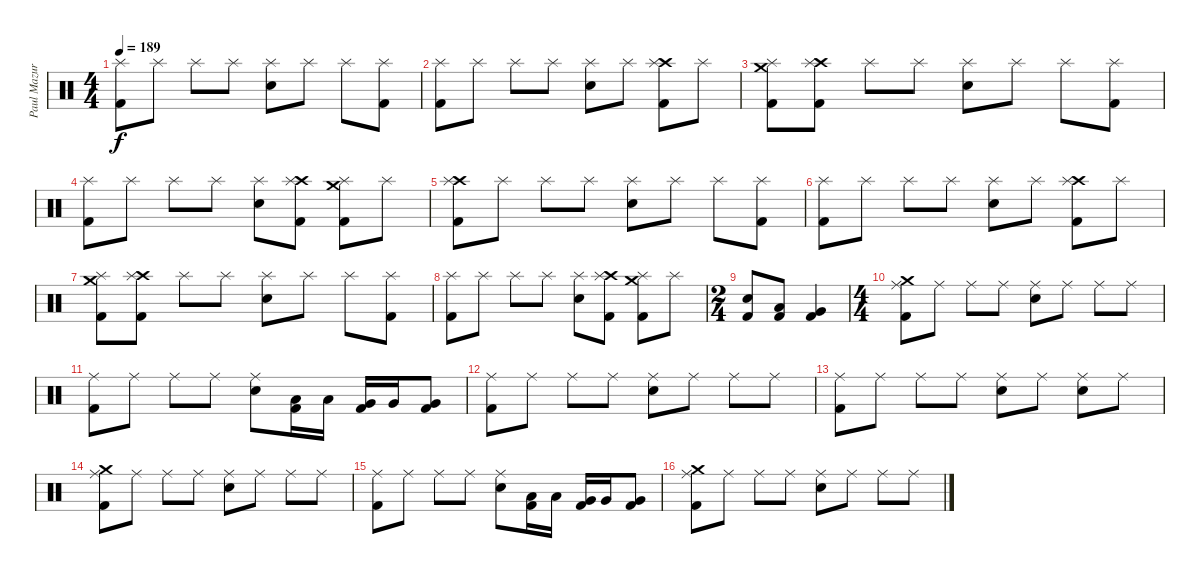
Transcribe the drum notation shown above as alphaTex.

\track ("Paul Mazurkevitch" "Paul Mazur") {instrument percussion}
\staff {score}
\articulation defaults
\ts (4 4)
\tempo 189
\clef neutral
\ks c
("Splash (hit)" "Kick (hit) 2").8{dy f} "Splash (hit)".8 "Splash (hit)".8 "Splash (hit)".8 ("Splash (hit)" "Electric Snare (hit)").8 "Splash (hit)".8 "Splash (hit)".8 ("Splash (hit)" "Kick (hit) 2").8 |
("Splash (hit)" "Kick (hit) 2").8 "Splash (hit)".8 "Splash (hit)".8 "Splash (hit)".8 ("Splash (hit)" "Electric Snare (hit)").8 "Splash (hit)".8 ("Crash high (hit)" "Splash (hit)" "Kick (hit) 2").8 "Splash (hit)".8 |
("Crash medium (hit)" "Splash (hit)" "Kick (hit) 2").8 ("Crash high (hit)" "Splash (hit)" "Kick (hit) 2").8 "Splash (hit)".8 "Splash (hit)".8 ("Splash (hit)" "Electric Snare (hit)").8 "Splash (hit)".8 "Splash (hit)".8 ("Splash (hit)" "Kick (hit) 2").8 |
("Splash (hit)" "Kick (hit) 2").8 "Splash (hit)".8 "Splash (hit)".8 "Splash (hit)".8 ("Splash (hit)" "Electric Snare (hit)").8 ("Crash high (hit)" "Splash (hit)" "Kick (hit) 2").8 ("Crash medium (hit)" "Splash (hit)" "Kick (hit) 2").8 "Splash (hit)".8 |
("Crash high (hit)" "Splash (hit)" "Kick (hit) 2").8 "Splash (hit)".8 "Splash (hit)".8 "Splash (hit)".8 ("Splash (hit)" "Electric Snare (hit)").8 "Splash (hit)".8 "Splash (hit)".8 ("Splash (hit)" "Kick (hit) 2").8 |
("Splash (hit)" "Kick (hit) 2").8 "Splash (hit)".8 "Splash (hit)".8 "Splash (hit)".8 ("Splash (hit)" "Electric Snare (hit)").8 "Splash (hit)".8 ("Crash high (hit)" "Splash (hit)" "Kick (hit) 2").8 "Splash (hit)".8 |
("Crash medium (hit)" "Splash (hit)" "Kick (hit) 2").8 ("Crash high (hit)" "Splash (hit)" "Kick (hit) 2").8 "Splash (hit)".8 "Splash (hit)".8 ("Splash (hit)" "Electric Snare (hit)").8 "Splash (hit)".8 "Splash (hit)".8 ("Splash (hit)" "Kick (hit) 2").8 |
("Splash (hit)" "Kick (hit) 2").8 "Splash (hit)".8 "Splash (hit)".8 "Splash (hit)".8 ("Splash (hit)" "Electric Snare (hit)").8 ("Crash high (hit)" "Splash (hit)" "Kick (hit) 2").8 ("Crash medium (hit)" "Splash (hit)" "Kick (hit) 2").8 "Splash (hit)".8 |
\ts (2 4)
("Electric Snare (hit)" "Kick (hit) 2").8 ("Low Tom (hit)" "Kick (hit) 2").8 ("Very Low Tom (hit)" "Kick (hit) 2").4 |
\ts (4 4)
("Crash medium (hit)" "Ride (middle)" "Kick (hit) 2").8 "Ride (middle)".8 "Ride (middle)".8 "Ride (middle)".8 ("Ride (middle)" "Electric Snare (hit)").8 "Ride (middle)".8 "Ride (middle)".8 "Ride (middle)".8 |
("Ride (middle)" "Kick (hit) 2").8 "Ride (middle)".8 "Ride (middle)".8 "Ride (middle)".8 ("Ride (middle)" "Electric Snare (hit)").8 ("Low Tom (hit)" "Kick (hit) 2").16 "Low Tom (hit)".16 ("Very Low Tom (hit)" "Kick (hit) 2").16 "Very Low Tom (hit)".16 ("Very Low Tom (hit)" "Kick (hit) 2").8 |
("Ride (middle)" "Kick (hit) 2").8 "Ride (middle)".8 "Ride (middle)".8 "Ride (middle)".8 ("Ride (middle)" "Electric Snare (hit)").8 "Ride (middle)".8 "Ride (middle)".8 "Ride (middle)".8 |
("Ride (middle)" "Kick (hit) 2").8 "Ride (middle)".8 "Ride (middle)".8 "Ride (middle)".8 ("Ride (middle)" "Electric Snare (hit)").8 "Ride (middle)".8 ("Ride (middle)" "Electric Snare (hit)").8 "Ride (middle)".8 |
("Crash medium (hit)" "Ride (middle)" "Kick (hit) 2").8 "Ride (middle)".8 "Ride (middle)".8 "Ride (middle)".8 ("Ride (middle)" "Electric Snare (hit)").8 "Ride (middle)".8 "Ride (middle)".8 "Ride (middle)".8 |
("Ride (middle)" "Kick (hit) 2").8 "Ride (middle)".8 "Ride (middle)".8 "Ride (middle)".8 ("Ride (middle)" "Electric Snare (hit)").8 ("Low Tom (hit)" "Kick (hit) 2").16 "Low Tom (hit)".16 ("Very Low Tom (hit)" "Kick (hit) 2").16 "Very Low Tom (hit)".16 ("Very Low Tom (hit)" "Kick (hit) 2").8 |
("Crash medium (hit)" "Ride (middle)" "Kick (hit) 2").8 "Ride (middle)".8 "Ride (middle)".8 "Ride (middle)".8 ("Ride (middle)" "Electric Snare (hit)").8 "Ride (middle)".8 "Ride (middle)".8 "Ride (middle)".8
